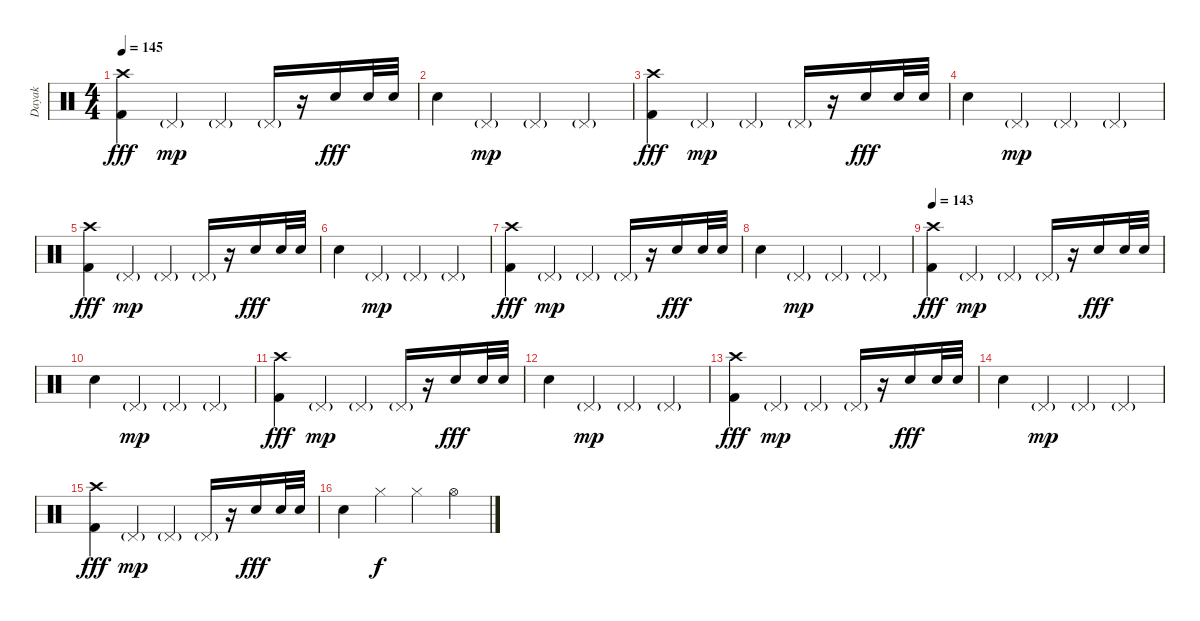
\track ("Dayak" "Dayak") {instrument percussion}
\staff {score}
\articulation defaults
\ts (4 4)
\tempo 145
\clef neutral
\ks c
("Crash high (hit)" "Kick (hit) 2").4{dy fff volume 16} "Pedal Hi-Hat (hit)"{g}.4{dy mp} "Pedal Hi-Hat (hit)"{g}.4 "Pedal Hi-Hat (hit)"{g}.16 r.16 "Snare (hit) 2".16{dy fff} "Snare (hit) 2".32 "Snare (hit) 2".32 |
"Snare (hit) 2".4 "Pedal Hi-Hat (hit)"{g}.4{dy mp} "Pedal Hi-Hat (hit)"{g}.4 "Pedal Hi-Hat (hit)"{g}.4 |
("Crash high (hit)" "Kick (hit) 2").4{dy fff} "Pedal Hi-Hat (hit)"{g}.4{dy mp} "Pedal Hi-Hat (hit)"{g}.4 "Pedal Hi-Hat (hit)"{g}.16 r.16 "Snare (hit) 2".16{dy fff} "Snare (hit) 2".32 "Snare (hit) 2".32 |
"Snare (hit) 2".4 "Pedal Hi-Hat (hit)"{g}.4{dy mp} "Pedal Hi-Hat (hit)"{g}.4 "Pedal Hi-Hat (hit)"{g}.4 |
("Crash high (hit)" "Kick (hit) 2").4{dy fff} "Pedal Hi-Hat (hit)"{g}.4{dy mp} "Pedal Hi-Hat (hit)"{g}.4 "Pedal Hi-Hat (hit)"{g}.16 r.16 "Snare (hit) 2".16{dy fff} "Snare (hit) 2".32 "Snare (hit) 2".32 |
"Snare (hit) 2".4 "Pedal Hi-Hat (hit)"{g}.4{dy mp} "Pedal Hi-Hat (hit)"{g}.4 "Pedal Hi-Hat (hit)"{g}.4 |
("Crash high (hit)" "Kick (hit) 2").4{dy fff} "Pedal Hi-Hat (hit)"{g}.4{dy mp} "Pedal Hi-Hat (hit)"{g}.4 "Pedal Hi-Hat (hit)"{g}.16 r.16 "Snare (hit) 2".16{dy fff} "Snare (hit) 2".32 "Snare (hit) 2".32 |
"Snare (hit) 2".4 "Pedal Hi-Hat (hit)"{g}.4{dy mp} "Pedal Hi-Hat (hit)"{g}.4 "Pedal Hi-Hat (hit)"{g}.4 |
\tempo 143
("Crash high (hit)" "Kick (hit) 2").4{dy fff} "Pedal Hi-Hat (hit)"{g}.4{dy mp} "Pedal Hi-Hat (hit)"{g}.4 "Pedal Hi-Hat (hit)"{g}.16 r.16 "Snare (hit) 2".16{dy fff} "Snare (hit) 2".32 "Snare (hit) 2".32 |
"Snare (hit) 2".4 "Pedal Hi-Hat (hit)"{g}.4{dy mp} "Pedal Hi-Hat (hit)"{g}.4 "Pedal Hi-Hat (hit)"{g}.4 |
("Crash high (hit)" "Kick (hit) 2").4{dy fff} "Pedal Hi-Hat (hit)"{g}.4{dy mp} "Pedal Hi-Hat (hit)"{g}.4 "Pedal Hi-Hat (hit)"{g}.16 r.16 "Snare (hit) 2".16{dy fff} "Snare (hit) 2".32 "Snare (hit) 2".32 |
"Snare (hit) 2".4 "Pedal Hi-Hat (hit)"{g}.4{dy mp} "Pedal Hi-Hat (hit)"{g}.4 "Pedal Hi-Hat (hit)"{g}.4 |
("Crash high (hit)" "Kick (hit) 2").4{dy fff} "Pedal Hi-Hat (hit)"{g}.4{dy mp} "Pedal Hi-Hat (hit)"{g}.4 "Pedal Hi-Hat (hit)"{g}.16 r.16 "Snare (hit) 2".16{dy fff} "Snare (hit) 2".32 "Snare (hit) 2".32 |
"Snare (hit) 2".4 "Pedal Hi-Hat (hit)"{g}.4{dy mp} "Pedal Hi-Hat (hit)"{g}.4 "Pedal Hi-Hat (hit)"{g}.4 |
("Crash high (hit)" "Kick (hit) 2").4{dy fff} "Pedal Hi-Hat (hit)"{g}.4{dy mp} "Pedal Hi-Hat (hit)"{g}.4 "Pedal Hi-Hat (hit)"{g}.16 r.16 "Snare (hit) 2".16{dy fff} "Snare (hit) 2".32 "Snare (hit) 2".32 |
"Snare (hit) 2".4 "Hi-Hat (closed)".4{dy f} "Hi-Hat (closed)".4 "Hi-Hat (open)".4
